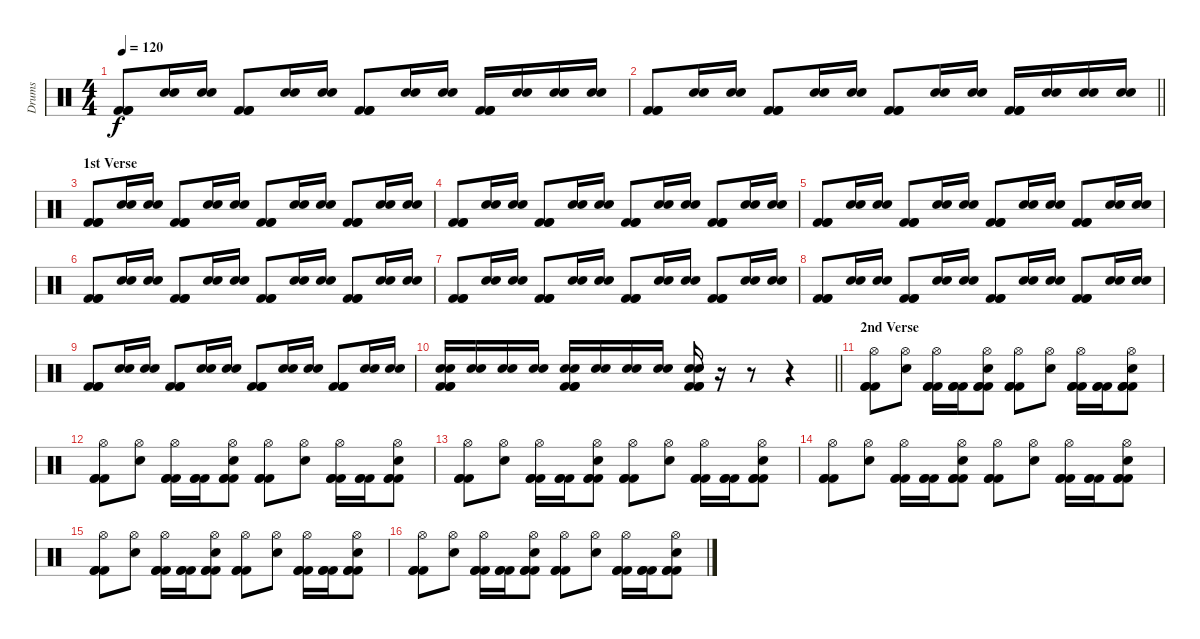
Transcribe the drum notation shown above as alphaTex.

\track ("Drums" "Drums") {instrument percussion}
\staff {score}
\articulation defaults
\ts (4 4)
\tempo 120
\clef neutral
\ks c
("Kick (hit) 2" "Kick (hit) 2" "Kick (hit) 2").8{dy f} ("Snare (hit) 2" "Snare (hit) 2").16 ("Snare (hit) 2" "Snare (hit) 2").16 ("Kick (hit) 2" "Kick (hit) 2" "Kick (hit) 2").8 ("Snare (hit) 2" "Snare (hit) 2").16 ("Snare (hit) 2" "Snare (hit) 2").16 ("Kick (hit) 2" "Kick (hit) 2" "Kick (hit) 2").8 ("Snare (hit) 2" "Snare (hit) 2").16 ("Snare (hit) 2" "Snare (hit) 2").16 ("Kick (hit) 2" "Kick (hit) 2" "Kick (hit) 2").16 ("Snare (hit) 2" "Snare (hit) 2").16 ("Snare (hit) 2" "Snare (hit) 2").16 ("Snare (hit) 2" "Snare (hit) 2").16 |
\barLineRight lightlight
("Kick (hit) 2" "Kick (hit) 2" "Kick (hit) 2").8 ("Snare (hit) 2" "Snare (hit) 2").16 ("Snare (hit) 2" "Snare (hit) 2").16 ("Kick (hit) 2" "Kick (hit) 2" "Kick (hit) 2").8 ("Snare (hit) 2" "Snare (hit) 2").16 ("Snare (hit) 2" "Snare (hit) 2").16 ("Kick (hit) 2" "Kick (hit) 2" "Kick (hit) 2").8 ("Snare (hit) 2" "Snare (hit) 2").16 ("Snare (hit) 2" "Snare (hit) 2").16 ("Kick (hit) 2" "Kick (hit) 2" "Kick (hit) 2").16 ("Snare (hit) 2" "Snare (hit) 2").16 ("Snare (hit) 2" "Snare (hit) 2").16 ("Snare (hit) 2" "Snare (hit) 2").16 |
\section ("" "1st Verse")
("Kick (hit) 2" "Kick (hit) 2" "Kick (hit) 2").8 ("Snare (hit) 2" "Snare (hit) 2").16 ("Snare (hit) 2" "Snare (hit) 2").16 ("Kick (hit) 2" "Kick (hit) 2" "Kick (hit) 2").8 ("Snare (hit) 2" "Snare (hit) 2").16 ("Snare (hit) 2" "Snare (hit) 2").16 ("Kick (hit) 2" "Kick (hit) 2" "Kick (hit) 2").8 ("Snare (hit) 2" "Snare (hit) 2").16 ("Snare (hit) 2" "Snare (hit) 2").16 ("Kick (hit) 2" "Kick (hit) 2" "Kick (hit) 2").8 ("Snare (hit) 2" "Snare (hit) 2").16 ("Snare (hit) 2" "Snare (hit) 2").16 |
("Kick (hit) 2" "Kick (hit) 2" "Kick (hit) 2").8 ("Snare (hit) 2" "Snare (hit) 2").16 ("Snare (hit) 2" "Snare (hit) 2").16 ("Kick (hit) 2" "Kick (hit) 2" "Kick (hit) 2").8 ("Snare (hit) 2" "Snare (hit) 2").16 ("Snare (hit) 2" "Snare (hit) 2").16 ("Kick (hit) 2" "Kick (hit) 2" "Kick (hit) 2").8 ("Snare (hit) 2" "Snare (hit) 2").16 ("Snare (hit) 2" "Snare (hit) 2").16 ("Kick (hit) 2" "Kick (hit) 2" "Kick (hit) 2").8 ("Snare (hit) 2" "Snare (hit) 2").16 ("Snare (hit) 2" "Snare (hit) 2").16 |
("Kick (hit) 2" "Kick (hit) 2" "Kick (hit) 2").8 ("Snare (hit) 2" "Snare (hit) 2").16 ("Snare (hit) 2" "Snare (hit) 2").16 ("Kick (hit) 2" "Kick (hit) 2" "Kick (hit) 2").8 ("Snare (hit) 2" "Snare (hit) 2").16 ("Snare (hit) 2" "Snare (hit) 2").16 ("Kick (hit) 2" "Kick (hit) 2" "Kick (hit) 2").8 ("Snare (hit) 2" "Snare (hit) 2").16 ("Snare (hit) 2" "Snare (hit) 2").16 ("Kick (hit) 2" "Kick (hit) 2" "Kick (hit) 2").8 ("Snare (hit) 2" "Snare (hit) 2").16 ("Snare (hit) 2" "Snare (hit) 2").16 |
("Kick (hit) 2" "Kick (hit) 2" "Kick (hit) 2").8 ("Snare (hit) 2" "Snare (hit) 2").16 ("Snare (hit) 2" "Snare (hit) 2").16 ("Kick (hit) 2" "Kick (hit) 2" "Kick (hit) 2").8 ("Snare (hit) 2" "Snare (hit) 2").16 ("Snare (hit) 2" "Snare (hit) 2").16 ("Kick (hit) 2" "Kick (hit) 2" "Kick (hit) 2").8 ("Snare (hit) 2" "Snare (hit) 2").16 ("Snare (hit) 2" "Snare (hit) 2").16 ("Kick (hit) 2" "Kick (hit) 2" "Kick (hit) 2").8 ("Snare (hit) 2" "Snare (hit) 2").16 ("Snare (hit) 2" "Snare (hit) 2").16 |
("Kick (hit) 2" "Kick (hit) 2" "Kick (hit) 2").8 ("Snare (hit) 2" "Snare (hit) 2").16 ("Snare (hit) 2" "Snare (hit) 2").16 ("Kick (hit) 2" "Kick (hit) 2" "Kick (hit) 2").8 ("Snare (hit) 2" "Snare (hit) 2").16 ("Snare (hit) 2" "Snare (hit) 2").16 ("Kick (hit) 2" "Kick (hit) 2" "Kick (hit) 2").8 ("Snare (hit) 2" "Snare (hit) 2").16 ("Snare (hit) 2" "Snare (hit) 2").16 ("Kick (hit) 2" "Kick (hit) 2" "Kick (hit) 2").8 ("Snare (hit) 2" "Snare (hit) 2").16 ("Snare (hit) 2" "Snare (hit) 2").16 |
("Kick (hit) 2" "Kick (hit) 2" "Kick (hit) 2").8 ("Snare (hit) 2" "Snare (hit) 2").16 ("Snare (hit) 2" "Snare (hit) 2").16 ("Kick (hit) 2" "Kick (hit) 2" "Kick (hit) 2").8 ("Snare (hit) 2" "Snare (hit) 2").16 ("Snare (hit) 2" "Snare (hit) 2").16 ("Kick (hit) 2" "Kick (hit) 2" "Kick (hit) 2").8 ("Snare (hit) 2" "Snare (hit) 2").16 ("Snare (hit) 2" "Snare (hit) 2").16 ("Kick (hit) 2" "Kick (hit) 2" "Kick (hit) 2").8 ("Snare (hit) 2" "Snare (hit) 2").16 ("Snare (hit) 2" "Snare (hit) 2").16 |
("Kick (hit) 2" "Kick (hit) 2" "Kick (hit) 2").8 ("Snare (hit) 2" "Snare (hit) 2").16 ("Snare (hit) 2" "Snare (hit) 2").16 ("Kick (hit) 2" "Kick (hit) 2" "Kick (hit) 2").8 ("Snare (hit) 2" "Snare (hit) 2").16 ("Snare (hit) 2" "Snare (hit) 2").16 ("Kick (hit) 2" "Kick (hit) 2" "Kick (hit) 2").8 ("Snare (hit) 2" "Snare (hit) 2").16 ("Snare (hit) 2" "Snare (hit) 2").16 ("Kick (hit) 2" "Kick (hit) 2" "Kick (hit) 2").8 ("Snare (hit) 2" "Snare (hit) 2").16 ("Snare (hit) 2" "Snare (hit) 2").16 |
\barLineRight lightlight
("Snare (hit) 2" "Snare (hit) 2" "Kick (hit) 2" "Kick (hit) 2" "Kick (hit) 2").16 ("Snare (hit) 2" "Snare (hit) 2").16 ("Snare (hit) 2" "Snare (hit) 2").16 ("Snare (hit) 2" "Snare (hit) 2").16 ("Snare (hit) 2" "Snare (hit) 2" "Kick (hit) 2" "Kick (hit) 2" "Kick (hit) 2").16 ("Snare (hit) 2" "Snare (hit) 2").16 ("Snare (hit) 2" "Snare (hit) 2").16 ("Snare (hit) 2" "Snare (hit) 2").16 ("Snare (hit) 2" "Snare (hit) 2" "Kick (hit) 2" "Kick (hit) 2" "Kick (hit) 2").16 r.16 r.8 r.4 |
\section ("" "2nd Verse")
("Hi-Hat (open)" "Kick (hit) 2" "Kick (hit) 2" "Kick (hit) 2").8 ("Hi-Hat (open)" "Snare (hit) 2").8 ("Hi-Hat (open)" "Kick (hit) 2" "Kick (hit) 2" "Kick (hit) 2").16 ("Kick (hit) 2" "Kick (hit) 2" "Kick (hit) 2").16 ("Hi-Hat (open)" "Snare (hit) 2" "Kick (hit) 2" "Kick (hit) 2" "Kick (hit) 2").8 ("Hi-Hat (open)" "Kick (hit) 2" "Kick (hit) 2" "Kick (hit) 2").8 ("Hi-Hat (open)" "Snare (hit) 2").8 ("Hi-Hat (open)" "Kick (hit) 2" "Kick (hit) 2" "Kick (hit) 2").16 ("Kick (hit) 2" "Kick (hit) 2" "Kick (hit) 2").16 ("Hi-Hat (open)" "Snare (hit) 2" "Kick (hit) 2" "Kick (hit) 2" "Kick (hit) 2").8 |
("Hi-Hat (open)" "Kick (hit) 2" "Kick (hit) 2" "Kick (hit) 2").8 ("Hi-Hat (open)" "Snare (hit) 2").8 ("Hi-Hat (open)" "Kick (hit) 2" "Kick (hit) 2" "Kick (hit) 2").16 ("Kick (hit) 2" "Kick (hit) 2" "Kick (hit) 2").16 ("Hi-Hat (open)" "Snare (hit) 2" "Kick (hit) 2" "Kick (hit) 2" "Kick (hit) 2").8 ("Hi-Hat (open)" "Kick (hit) 2" "Kick (hit) 2" "Kick (hit) 2").8 ("Hi-Hat (open)" "Snare (hit) 2").8 ("Hi-Hat (open)" "Kick (hit) 2" "Kick (hit) 2" "Kick (hit) 2").16 ("Kick (hit) 2" "Kick (hit) 2" "Kick (hit) 2").16 ("Hi-Hat (open)" "Snare (hit) 2" "Kick (hit) 2" "Kick (hit) 2" "Kick (hit) 2").8 |
("Hi-Hat (open)" "Kick (hit) 2" "Kick (hit) 2" "Kick (hit) 2").8 ("Hi-Hat (open)" "Snare (hit) 2").8 ("Hi-Hat (open)" "Kick (hit) 2" "Kick (hit) 2" "Kick (hit) 2").16 ("Kick (hit) 2" "Kick (hit) 2" "Kick (hit) 2").16 ("Hi-Hat (open)" "Snare (hit) 2" "Kick (hit) 2" "Kick (hit) 2" "Kick (hit) 2").8 ("Hi-Hat (open)" "Kick (hit) 2" "Kick (hit) 2" "Kick (hit) 2").8 ("Hi-Hat (open)" "Snare (hit) 2").8 ("Hi-Hat (open)" "Kick (hit) 2" "Kick (hit) 2" "Kick (hit) 2").16 ("Kick (hit) 2" "Kick (hit) 2" "Kick (hit) 2").16 ("Hi-Hat (open)" "Snare (hit) 2" "Kick (hit) 2" "Kick (hit) 2" "Kick (hit) 2").8 |
("Hi-Hat (open)" "Kick (hit) 2" "Kick (hit) 2" "Kick (hit) 2").8 ("Hi-Hat (open)" "Snare (hit) 2").8 ("Hi-Hat (open)" "Kick (hit) 2" "Kick (hit) 2" "Kick (hit) 2").16 ("Kick (hit) 2" "Kick (hit) 2" "Kick (hit) 2").16 ("Hi-Hat (open)" "Snare (hit) 2" "Kick (hit) 2" "Kick (hit) 2" "Kick (hit) 2").8 ("Hi-Hat (open)" "Kick (hit) 2" "Kick (hit) 2" "Kick (hit) 2").8 ("Hi-Hat (open)" "Snare (hit) 2").8 ("Hi-Hat (open)" "Kick (hit) 2" "Kick (hit) 2" "Kick (hit) 2").16 ("Kick (hit) 2" "Kick (hit) 2" "Kick (hit) 2").16 ("Hi-Hat (open)" "Snare (hit) 2" "Kick (hit) 2" "Kick (hit) 2" "Kick (hit) 2").8 |
("Hi-Hat (open)" "Kick (hit) 2" "Kick (hit) 2" "Kick (hit) 2").8 ("Hi-Hat (open)" "Snare (hit) 2").8 ("Hi-Hat (open)" "Kick (hit) 2" "Kick (hit) 2" "Kick (hit) 2").16 ("Kick (hit) 2" "Kick (hit) 2" "Kick (hit) 2").16 ("Hi-Hat (open)" "Snare (hit) 2" "Kick (hit) 2" "Kick (hit) 2" "Kick (hit) 2").8 ("Hi-Hat (open)" "Kick (hit) 2" "Kick (hit) 2" "Kick (hit) 2").8 ("Hi-Hat (open)" "Snare (hit) 2").8 ("Hi-Hat (open)" "Kick (hit) 2" "Kick (hit) 2" "Kick (hit) 2").16 ("Kick (hit) 2" "Kick (hit) 2" "Kick (hit) 2").16 ("Hi-Hat (open)" "Snare (hit) 2" "Kick (hit) 2" "Kick (hit) 2" "Kick (hit) 2").8 |
("Hi-Hat (open)" "Kick (hit) 2" "Kick (hit) 2" "Kick (hit) 2").8 ("Hi-Hat (open)" "Snare (hit) 2").8 ("Hi-Hat (open)" "Kick (hit) 2" "Kick (hit) 2" "Kick (hit) 2").16 ("Kick (hit) 2" "Kick (hit) 2" "Kick (hit) 2").16 ("Hi-Hat (open)" "Snare (hit) 2" "Kick (hit) 2" "Kick (hit) 2" "Kick (hit) 2").8 ("Hi-Hat (open)" "Kick (hit) 2" "Kick (hit) 2" "Kick (hit) 2").8 ("Hi-Hat (open)" "Snare (hit) 2").8 ("Hi-Hat (open)" "Kick (hit) 2" "Kick (hit) 2" "Kick (hit) 2").16 ("Kick (hit) 2" "Kick (hit) 2" "Kick (hit) 2").16 ("Hi-Hat (open)" "Snare (hit) 2" "Kick (hit) 2" "Kick (hit) 2" "Kick (hit) 2").8
